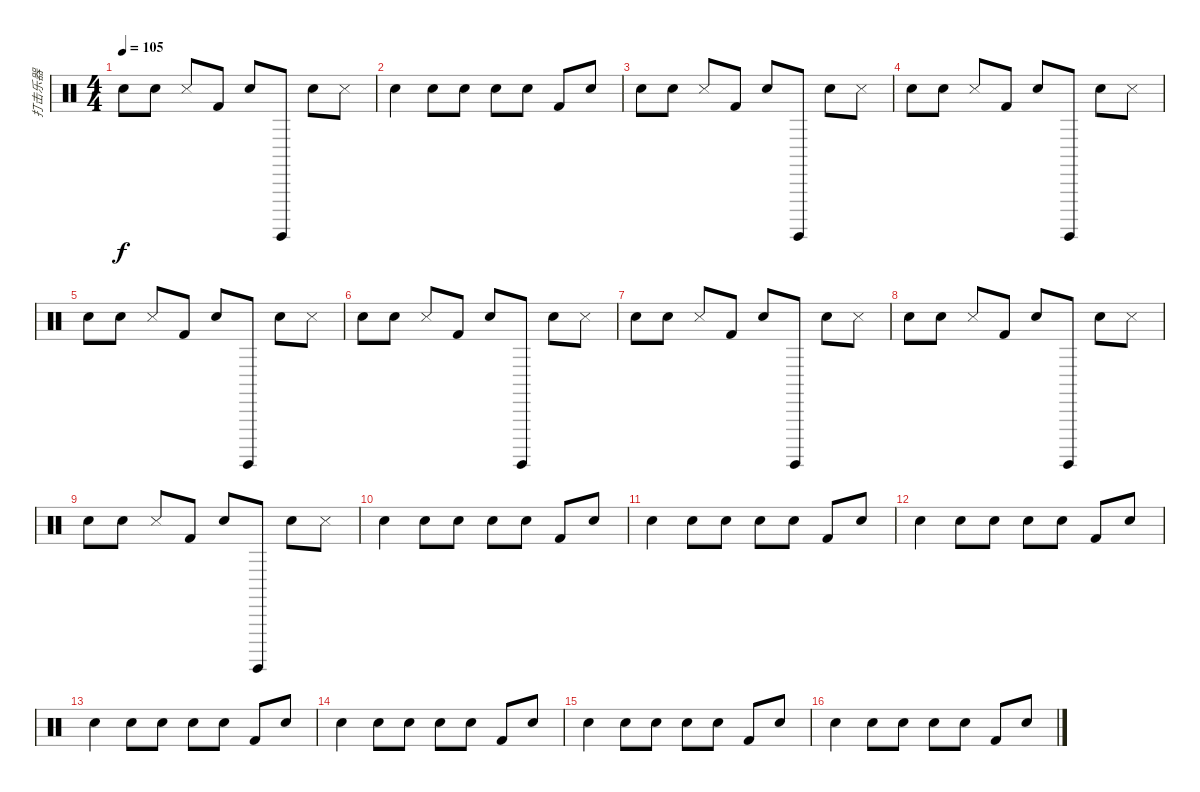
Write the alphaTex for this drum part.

\track ("打击乐器" "打击乐器") {instrument percussion}
\staff {score}
\articulation defaults
\ts (4 4)
\tempo 105
\clef neutral
\ks c "Snare (hit) 2".8{dy f} "Snare (hit) 2".8 "Snare (side stick) 3".8 "Kick (hit) 2".8 "Snare (hit) 2".8 "Surdo (hit)".8 "Snare (hit) 2".8 "Snare (side stick) 3".8
|
"Snare (hit) 2".4 "Snare (hit) 2".8 "Electric Snare (hit)".8 "Hand Clap (hit)".8 "Snare (hit) 2".8 "Kick (hit) 2".8 "Snare (hit) 2".8 |
"Snare (hit) 2".8 "Snare (hit) 2".8 "Snare (side stick) 3".8 "Kick (hit) 2".8 "Snare (hit) 2".8 "Surdo (hit)".8 "Snare (hit) 2".8 "Snare (side stick) 3".8 |
"Snare (hit) 2".8 "Snare (hit) 2".8 "Snare (side stick) 3".8 "Kick (hit) 2".8 "Snare (hit) 2".8 "Surdo (hit)".8 "Snare (hit) 2".8 "Snare (side stick) 3".8 |
"Snare (hit) 2".8 "Snare (hit) 2".8 "Snare (side stick) 3".8 "Kick (hit) 2".8 "Snare (hit) 2".8 "Surdo (hit)".8 "Snare (hit) 2".8 "Snare (side stick) 3".8 |
"Snare (hit) 2".8 "Snare (hit) 2".8 "Snare (side stick) 3".8 "Kick (hit) 2".8 "Snare (hit) 2".8 "Surdo (hit)".8 "Snare (hit) 2".8 "Snare (side stick) 3".8 |
"Snare (hit) 2".8 "Snare (hit) 2".8 "Snare (side stick) 3".8 "Kick (hit) 2".8 "Snare (hit) 2".8 "Surdo (hit)".8 "Snare (hit) 2".8 "Snare (side stick) 3".8 |
"Snare (hit) 2".8 "Snare (hit) 2".8 "Snare (side stick) 3".8 "Kick (hit) 2".8 "Snare (hit) 2".8 "Surdo (hit)".8 "Snare (hit) 2".8 "Snare (side stick) 3".8 |
"Snare (hit) 2".8 "Snare (hit) 2".8 "Snare (side stick) 3".8 "Kick (hit) 2".8 "Snare (hit) 2".8 "Surdo (hit)".8 "Snare (hit) 2".8 "Snare (side stick) 3".8 |
"Snare (hit) 2".4 "Snare (hit) 2".8 "Electric Snare (hit)".8 "Hand Clap (hit)".8 "Snare (hit) 2".8 "Kick (hit) 2".8 "Snare (hit) 2".8 |
"Snare (hit) 2".4 "Snare (hit) 2".8 "Electric Snare (hit)".8 "Hand Clap (hit)".8 "Snare (hit) 2".8 "Kick (hit) 2".8 "Snare (hit) 2".8 |
"Snare (hit) 2".4 "Snare (hit) 2".8 "Electric Snare (hit)".8 "Hand Clap (hit)".8 "Snare (hit) 2".8 "Kick (hit) 2".8 "Snare (hit) 2".8 |
"Snare (hit) 2".4 "Snare (hit) 2".8 "Electric Snare (hit)".8 "Hand Clap (hit)".8 "Snare (hit) 2".8 "Kick (hit) 2".8 "Snare (hit) 2".8 |
"Snare (hit) 2".4 "Snare (hit) 2".8 "Electric Snare (hit)".8 "Hand Clap (hit)".8 "Snare (hit) 2".8 "Kick (hit) 2".8 "Snare (hit) 2".8 |
"Snare (hit) 2".4 "Snare (hit) 2".8 "Electric Snare (hit)".8 "Hand Clap (hit)".8 "Snare (hit) 2".8 "Kick (hit) 2".8 "Snare (hit) 2".8 |
"Snare (hit) 2".4 "Snare (hit) 2".8 "Electric Snare (hit)".8 "Hand Clap (hit)".8 "Snare (hit) 2".8 "Kick (hit) 2".8 "Snare (hit) 2".8
